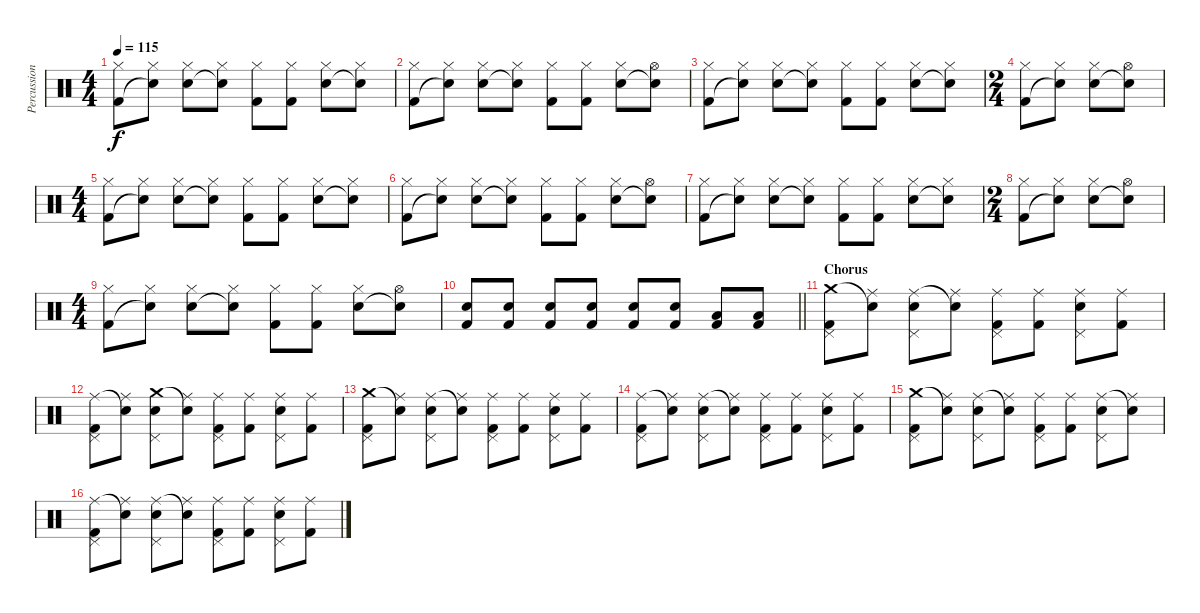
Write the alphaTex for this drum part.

\track ("Percussioni" "Percussion") {instrument percussion}
\staff {score}
\articulation defaults
\ts (4 4)
\tempo 115
\clef neutral
\ks c
("Hi-Hat (closed)" "Kick (hit) 2").8{dy f} ("Hi-Hat (closed)" "Snare (hit)"{t}).8 ("Hi-Hat (closed)" "Electric Snare (hit)").8 ("Hi-Hat (closed)" "Snare (hit)"{t}).8 ("Hi-Hat (closed)" "Kick (hit) 2").8 ("Hi-Hat (closed)" "Kick (hit) 2").8 ("Hi-Hat (closed)" "Electric Snare (hit)").8 ("Hi-Hat (closed)" "Snare (hit)"{t}).8 |
("Hi-Hat (closed)" "Kick (hit) 2").8 ("Hi-Hat (closed)" "Snare (hit)"{t}).8 ("Hi-Hat (closed)" "Electric Snare (hit)").8 ("Hi-Hat (closed)" "Snare (hit)"{t}).8 ("Hi-Hat (closed)" "Kick (hit) 2").8 ("Hi-Hat (closed)" "Kick (hit) 2").8 ("Hi-Hat (closed)" "Electric Snare (hit)").8 ("Hi-Hat (open)" "Snare (hit)"{t}).8 |
("Hi-Hat (closed)" "Kick (hit) 2").8 ("Hi-Hat (closed)" "Snare (hit)"{t}).8 ("Hi-Hat (closed)" "Electric Snare (hit)").8 ("Hi-Hat (closed)" "Snare (hit)"{t}).8 ("Hi-Hat (closed)" "Kick (hit) 2").8 ("Hi-Hat (closed)" "Kick (hit) 2").8 ("Hi-Hat (closed)" "Electric Snare (hit)").8 ("Hi-Hat (closed)" "Snare (hit)"{t}).8 |
\ts (2 4)
("Hi-Hat (closed)" "Kick (hit) 2").8 ("Hi-Hat (closed)" "Snare (hit)"{t}).8 ("Hi-Hat (closed)" "Electric Snare (hit)").8 ("Hi-Hat (open)" "Snare (hit)"{t}).8 |
\ts (4 4)
("Hi-Hat (closed)" "Kick (hit) 2").8 ("Hi-Hat (closed)" "Snare (hit)"{t}).8 ("Hi-Hat (closed)" "Electric Snare (hit)").8 ("Hi-Hat (closed)" "Snare (hit)"{t}).8 ("Hi-Hat (closed)" "Kick (hit) 2").8 ("Hi-Hat (closed)" "Kick (hit) 2").8 ("Hi-Hat (closed)" "Electric Snare (hit)").8 ("Hi-Hat (closed)" "Snare (hit)"{t}).8 |
("Hi-Hat (closed)" "Kick (hit) 2").8 ("Hi-Hat (closed)" "Snare (hit)"{t}).8 ("Hi-Hat (closed)" "Electric Snare (hit)").8 ("Hi-Hat (closed)" "Snare (hit)"{t}).8 ("Hi-Hat (closed)" "Kick (hit) 2").8 ("Hi-Hat (closed)" "Kick (hit) 2").8 ("Hi-Hat (closed)" "Electric Snare (hit)").8 ("Hi-Hat (open)" "Snare (hit)"{t}).8 |
("Hi-Hat (closed)" "Kick (hit) 2").8 ("Hi-Hat (closed)" "Snare (hit)"{t}).8 ("Hi-Hat (closed)" "Electric Snare (hit)").8 ("Hi-Hat (closed)" "Snare (hit)"{t}).8 ("Hi-Hat (closed)" "Kick (hit) 2").8 ("Hi-Hat (closed)" "Kick (hit) 2").8 ("Hi-Hat (closed)" "Electric Snare (hit)").8 ("Hi-Hat (closed)" "Snare (hit)"{t}).8 |
\ts (2 4)
("Hi-Hat (closed)" "Kick (hit) 2").8 ("Hi-Hat (closed)" "Snare (hit)"{t}).8 ("Hi-Hat (closed)" "Electric Snare (hit)").8 ("Hi-Hat (open)" "Snare (hit)"{t}).8 |
\ts (4 4)
("Hi-Hat (closed)" "Kick (hit) 2").8 ("Hi-Hat (closed)" "Snare (hit)"{t}).8 ("Hi-Hat (closed)" "Electric Snare (hit)").8 ("Hi-Hat (closed)" "Snare (hit)"{t}).8 ("Hi-Hat (closed)" "Kick (hit) 2").8 ("Hi-Hat (closed)" "Kick (hit) 2").8 ("Hi-Hat (closed)" "Electric Snare (hit)").8 ("Hi-Hat (open)" "Snare (hit)"{t}).8 |
\barLineRight lightlight
("Electric Snare (hit)" "Kick (hit) 2").8 ("Electric Snare (hit)" "Kick (hit) 2").8 ("Electric Snare (hit)" "Kick (hit) 2").8 ("Electric Snare (hit)" "Kick (hit) 2").8 ("Electric Snare (hit)" "Kick (hit) 2").8 ("Electric Snare (hit)" "Kick (hit) 2").8 ("Low Tom (hit)" "Kick (hit) 2").8 ("Low Floor Tom (hit)" "Kick (hit) 2").8 |
\section ("" "Chorus")
("Pedal Hi-Hat (hit)" "Crash medium (hit)" "Kick (hit) 2").8 ("Ride (middle)" "Snare (hit)"{t}).8 ("Pedal Hi-Hat (hit)" "Ride (middle)" "Electric Snare (hit)").8 ("Ride (middle)" "Snare (hit)"{t}).8 ("Pedal Hi-Hat (hit)" "Ride (middle)" "Kick (hit) 2").8 ("Ride (middle)" "Kick (hit) 2").8 ("Pedal Hi-Hat (hit)" "Ride (middle)" "Electric Snare (hit)").8 ("Ride (middle)" "Kick (hit) 2").8 |
("Pedal Hi-Hat (hit)" "Ride (middle)" "Kick (hit) 2").8 ("Ride (middle)" "Snare (hit)"{t}).8 ("Pedal Hi-Hat (hit)" "Crash medium (hit)" "Electric Snare (hit)").8 ("Ride (middle)" "Snare (hit)"{t}).8 ("Pedal Hi-Hat (hit)" "Ride (middle)" "Kick (hit) 2").8 ("Ride (middle)" "Kick (hit) 2").8 ("Pedal Hi-Hat (hit)" "Ride (middle)" "Electric Snare (hit)").8 ("Ride (middle)" "Kick (hit) 2").8 |
("Pedal Hi-Hat (hit)" "Crash medium (hit)" "Kick (hit) 2").8 ("Ride (middle)" "Snare (hit)"{t}).8 ("Pedal Hi-Hat (hit)" "Ride (middle)" "Electric Snare (hit)").8 ("Ride (middle)" "Snare (hit)"{t}).8 ("Pedal Hi-Hat (hit)" "Ride (middle)" "Kick (hit) 2").8 ("Ride (middle)" "Kick (hit) 2").8 ("Pedal Hi-Hat (hit)" "Ride (middle)" "Electric Snare (hit)").8 ("Ride (middle)" "Kick (hit) 2").8 |
("Pedal Hi-Hat (hit)" "Ride (middle)" "Kick (hit) 2").8 ("Ride (middle)" "Snare (hit)"{t}).8 ("Pedal Hi-Hat (hit)" "Ride (middle)" "Electric Snare (hit)").8 ("Ride (middle)" "Snare (hit)"{t}).8 ("Pedal Hi-Hat (hit)" "Ride (middle)" "Kick (hit) 2").8 ("Ride (middle)" "Kick (hit) 2").8 ("Pedal Hi-Hat (hit)" "Ride (middle)" "Electric Snare (hit)").8 ("Ride (middle)" "Kick (hit) 2").8 |
("Pedal Hi-Hat (hit)" "Crash medium (hit)" "Kick (hit) 2").8 ("Ride (middle)" "Snare (hit)"{t}).8 ("Pedal Hi-Hat (hit)" "Ride (middle)" "Electric Snare (hit)").8 ("Ride (middle)" "Snare (hit)"{t}).8 ("Pedal Hi-Hat (hit)" "Ride (middle)" "Kick (hit) 2").8 ("Ride (middle)" "Kick (hit) 2").8 ("Pedal Hi-Hat (hit)" "Ride (middle)" "Electric Snare (hit)").8 ("Ride (middle)" "Snare (hit)"{t}).8 |
("Pedal Hi-Hat (hit)" "Ride (middle)" "Kick (hit) 2").8 ("Ride (middle)" "Snare (hit)"{t}).8 ("Pedal Hi-Hat (hit)" "Ride (middle)" "Electric Snare (hit)").8 ("Ride (middle)" "Snare (hit)"{t}).8 ("Pedal Hi-Hat (hit)" "Ride (middle)" "Kick (hit) 2").8 ("Ride (middle)" "Kick (hit) 2").8 ("Pedal Hi-Hat (hit)" "Ride (middle)" "Electric Snare (hit)").8 ("Ride (middle)" "Kick (hit) 2").8
